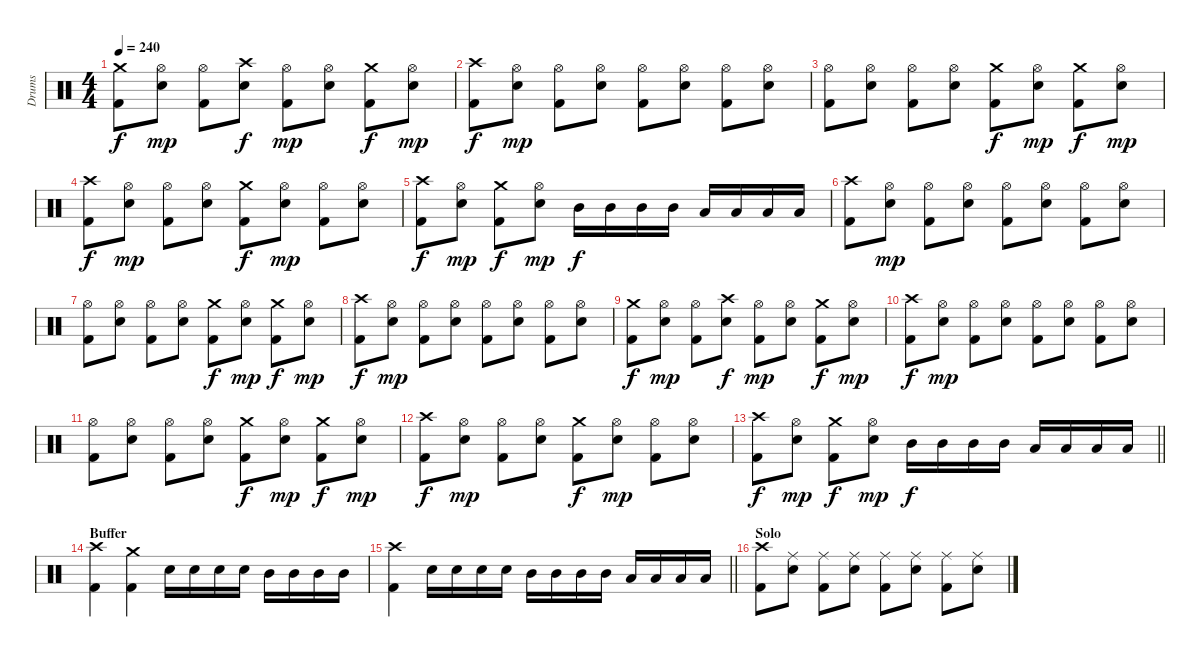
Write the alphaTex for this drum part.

\track ("Drums" "Drums") {instrument percussion}
\staff {score}
\articulation defaults
\ts (4 4)
\tempo 240
\clef neutral
\ks c
("Crash medium (hit)" "Kick (hit) 2").8{dy f} ("Hi-Hat (open)" "Snare (hit) 2").8{dy mp} ("Hi-Hat (open)" "Kick (hit) 2").8 ("Crash high (hit)" "Snare (hit) 2").8{dy f} ("Hi-Hat (open)" "Kick (hit) 2").8{dy mp} ("Hi-Hat (open)" "Snare (hit) 2").8 ("Crash medium (hit)" "Kick (hit) 2").8{dy f} ("Hi-Hat (open)" "Snare (hit) 2").8{dy mp} |
("Crash high (hit)" "Kick (hit) 2").8{dy f} ("Hi-Hat (open)" "Snare (hit) 2").8{dy mp} ("Hi-Hat (open)" "Kick (hit) 2").8 ("Hi-Hat (open)" "Snare (hit) 2").8 ("Hi-Hat (open)" "Kick (hit) 2").8 ("Hi-Hat (open)" "Snare (hit) 2").8 ("Hi-Hat (open)" "Kick (hit) 2").8 ("Hi-Hat (open)" "Snare (hit) 2").8 |
("Hi-Hat (open)" "Kick (hit) 2").8 ("Hi-Hat (open)" "Snare (hit) 2").8 ("Hi-Hat (open)" "Kick (hit) 2").8 ("Hi-Hat (open)" "Snare (hit) 2").8 ("Crash medium (hit)" "Kick (hit) 2").8{dy f} ("Hi-Hat (open)" "Snare (hit) 2").8{dy mp} ("Crash medium (hit)" "Kick (hit) 2").8{dy f} ("Hi-Hat (open)" "Snare (hit) 2").8{dy mp} |
("Crash high (hit)" "Kick (hit) 2").8{dy f} ("Hi-Hat (open)" "Snare (hit) 2").8{dy mp} ("Hi-Hat (open)" "Kick (hit) 2").8 ("Hi-Hat (open)" "Snare (hit) 2").8 ("Crash medium (hit)" "Kick (hit) 2").8{dy f} ("Hi-Hat (open)" "Snare (hit) 2").8{dy mp} ("Hi-Hat (open)" "Kick (hit) 2").8 ("Hi-Hat (open)" "Snare (hit) 2").8 |
("Crash high (hit)" "Kick (hit) 2").8{dy f} ("Hi-Hat (open)" "Snare (hit) 2").8{dy mp} ("Crash medium (hit)" "Kick (hit) 2").8{dy f} ("Hi-Hat (open)" "Snare (hit) 2").8{dy mp} "Mid Tom (hit)".16{dy f} "Mid Tom (hit)".16 "Mid Tom (hit)".16 "Mid Tom (hit)".16 "Low Tom (hit)".16 "Low Tom (hit)".16 "Low Tom (hit)".16 "Low Tom (hit)".16 |
("Crash high (hit)" "Kick (hit) 2").8 ("Hi-Hat (open)" "Snare (hit) 2").8{dy mp} ("Hi-Hat (open)" "Kick (hit) 2").8 ("Hi-Hat (open)" "Snare (hit) 2").8 ("Hi-Hat (open)" "Kick (hit) 2").8 ("Hi-Hat (open)" "Snare (hit) 2").8 ("Hi-Hat (open)" "Kick (hit) 2").8 ("Hi-Hat (open)" "Snare (hit) 2").8 |
("Hi-Hat (open)" "Kick (hit) 2").8 ("Hi-Hat (open)" "Snare (hit) 2").8 ("Hi-Hat (open)" "Kick (hit) 2").8 ("Hi-Hat (open)" "Snare (hit) 2").8 ("Crash medium (hit)" "Kick (hit) 2").8{dy f} ("Hi-Hat (open)" "Snare (hit) 2").8{dy mp} ("Crash medium (hit)" "Kick (hit) 2").8{dy f} ("Hi-Hat (open)" "Snare (hit) 2").8{dy mp} |
("Crash high (hit)" "Kick (hit) 2").8{dy f} ("Hi-Hat (open)" "Snare (hit) 2").8{dy mp} ("Hi-Hat (open)" "Kick (hit) 2").8 ("Hi-Hat (open)" "Snare (hit) 2").8 ("Hi-Hat (open)" "Kick (hit) 2").8 ("Hi-Hat (open)" "Snare (hit) 2").8 ("Hi-Hat (open)" "Kick (hit) 2").8 ("Hi-Hat (open)" "Snare (hit) 2").8 |
("Crash medium (hit)" "Kick (hit) 2").8{dy f} ("Hi-Hat (open)" "Snare (hit) 2").8{dy mp} ("Hi-Hat (open)" "Kick (hit) 2").8 ("Crash high (hit)" "Snare (hit) 2").8{dy f} ("Hi-Hat (open)" "Kick (hit) 2").8{dy mp} ("Hi-Hat (open)" "Snare (hit) 2").8 ("Crash medium (hit)" "Kick (hit) 2").8{dy f} ("Hi-Hat (open)" "Snare (hit) 2").8{dy mp} |
("Crash high (hit)" "Kick (hit) 2").8{dy f} ("Hi-Hat (open)" "Snare (hit) 2").8{dy mp} ("Hi-Hat (open)" "Kick (hit) 2").8 ("Hi-Hat (open)" "Snare (hit) 2").8 ("Hi-Hat (open)" "Kick (hit) 2").8 ("Hi-Hat (open)" "Snare (hit) 2").8 ("Hi-Hat (open)" "Kick (hit) 2").8 ("Hi-Hat (open)" "Snare (hit) 2").8 |
("Hi-Hat (open)" "Kick (hit) 2").8 ("Hi-Hat (open)" "Snare (hit) 2").8 ("Hi-Hat (open)" "Kick (hit) 2").8 ("Hi-Hat (open)" "Snare (hit) 2").8 ("Crash medium (hit)" "Kick (hit) 2").8{dy f} ("Hi-Hat (open)" "Snare (hit) 2").8{dy mp} ("Crash medium (hit)" "Kick (hit) 2").8{dy f} ("Hi-Hat (open)" "Snare (hit) 2").8{dy mp} |
("Crash high (hit)" "Kick (hit) 2").8{dy f} ("Hi-Hat (open)" "Snare (hit) 2").8{dy mp} ("Hi-Hat (open)" "Kick (hit) 2").8 ("Hi-Hat (open)" "Snare (hit) 2").8 ("Crash medium (hit)" "Kick (hit) 2").8{dy f} ("Hi-Hat (open)" "Snare (hit) 2").8{dy mp} ("Hi-Hat (open)" "Kick (hit) 2").8 ("Hi-Hat (open)" "Snare (hit) 2").8 |
\barLineRight lightlight
("Crash high (hit)" "Kick (hit) 2").8{dy f} ("Hi-Hat (open)" "Snare (hit) 2").8{dy mp} ("Crash medium (hit)" "Kick (hit) 2").8{dy f} ("Hi-Hat (open)" "Snare (hit) 2").8{dy mp} "Mid Tom (hit)".16{dy f} "Mid Tom (hit)".16 "Mid Tom (hit)".16 "Mid Tom (hit)".16 "Low Tom (hit)".16 "Low Tom (hit)".16 "Low Tom (hit)".16 "Low Tom (hit)".16 |
\section ("" "Buffer")
("Crash high (hit)" "Kick (hit) 2").4 ("Crash medium (hit)" "Kick (hit) 2").4 "Snare (hit) 2".16 "Snare (hit) 2".16 "Snare (hit) 2".16 "Snare (hit) 2".16 "Mid Tom (hit)".16 "Mid Tom (hit)".16 "Mid Tom (hit)".16 "Mid Tom (hit)".16 |
\barLineRight lightlight
("Crash high (hit)" "Kick (hit) 2").4 "Snare (hit) 2".16 "Snare (hit) 2".16 "Snare (hit) 2".16 "Snare (hit) 2".16 "Mid Tom (hit)".16 "Mid Tom (hit)".16 "Mid Tom (hit)".16 "Mid Tom (hit)".16 "Low Tom (hit)".16 "Low Tom (hit)".16 "Low Tom (hit)".16 "Low Tom (hit)".16 |
\section ("" "Solo")
("Crash high (hit)" "Kick (hit) 2").8 ("Ride (middle)" "Snare (hit) 2").8 ("Ride (middle)" "Kick (hit) 2").8 ("Ride (middle)" "Snare (hit) 2").8 ("Ride (middle)" "Kick (hit) 2").8 ("Ride (middle)" "Snare (hit) 2").8 ("Ride (middle)" "Kick (hit) 2").8 ("Ride (middle)" "Snare (hit) 2").8
